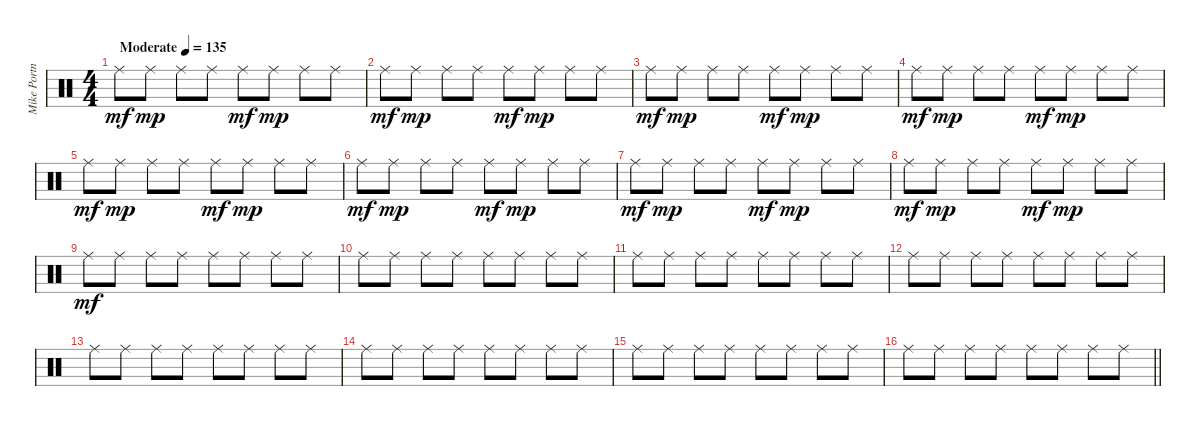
\track ("Mike Portnoy" "Mike Portn") {instrument percussion}
\staff {score}
\articulation defaults
\ts (4 4)
\tempo (135 "Moderate")
\clef neutral
\ks c "Ride (middle)".8{dy mf} "Ride (middle)".8{dy mp} "Ride (middle)".8 "Ride (middle)".8 "Ride (middle)".8{dy mf} "Ride (middle)".8{dy mp} "Ride (middle)".8 "Ride (middle)".8
|
"Ride (middle)".8{dy mf} "Ride (middle)".8{dy mp} "Ride (middle)".8 "Ride (middle)".8 "Ride (middle)".8{dy mf} "Ride (middle)".8{dy mp} "Ride (middle)".8 "Ride (middle)".8 |
"Ride (middle)".8{dy mf} "Ride (middle)".8{dy mp} "Ride (middle)".8 "Ride (middle)".8 "Ride (middle)".8{dy mf} "Ride (middle)".8{dy mp} "Ride (middle)".8 "Ride (middle)".8 |
"Ride (middle)".8{dy mf} "Ride (middle)".8{dy mp} "Ride (middle)".8 "Ride (middle)".8 "Ride (middle)".8{dy mf} "Ride (middle)".8{dy mp} "Ride (middle)".8 "Ride (middle)".8 |
"Ride (middle)".8{dy mf} "Ride (middle)".8{dy mp} "Ride (middle)".8 "Ride (middle)".8 "Ride (middle)".8{dy mf} "Ride (middle)".8{dy mp} "Ride (middle)".8 "Ride (middle)".8 |
"Ride (middle)".8{dy mf} "Ride (middle)".8{dy mp} "Ride (middle)".8 "Ride (middle)".8 "Ride (middle)".8{dy mf} "Ride (middle)".8{dy mp} "Ride (middle)".8 "Ride (middle)".8 |
"Ride (middle)".8{dy mf} "Ride (middle)".8{dy mp} "Ride (middle)".8 "Ride (middle)".8 "Ride (middle)".8{dy mf} "Ride (middle)".8{dy mp} "Ride (middle)".8 "Ride (middle)".8 |
"Ride (middle)".8{dy mf} "Ride (middle)".8{dy mp} "Ride (middle)".8 "Ride (middle)".8 "Ride (middle)".8{dy mf} "Ride (middle)".8{dy mp} "Ride (middle)".8 "Ride (middle)".8 |
"Ride (middle)".8{dy mf} "Ride (middle)".8 "Ride (middle)".8 "Ride (middle)".8 "Ride (middle)".8 "Ride (middle)".8 "Ride (middle)".8 "Ride (middle)".8 |
"Ride (middle)".8 "Ride (middle)".8 "Ride (middle)".8 "Ride (middle)".8 "Ride (middle)".8 "Ride (middle)".8 "Ride (middle)".8 "Ride (middle)".8 |
"Ride (middle)".8 "Ride (middle)".8 "Ride (middle)".8 "Ride (middle)".8 "Ride (middle)".8 "Ride (middle)".8 "Ride (middle)".8 "Ride (middle)".8 |
"Ride (middle)".8 "Ride (middle)".8 "Ride (middle)".8 "Ride (middle)".8 "Ride (middle)".8 "Ride (middle)".8 "Ride (middle)".8 "Ride (middle)".8 |
"Ride (middle)".8 "Ride (middle)".8 "Ride (middle)".8 "Ride (middle)".8 "Ride (middle)".8 "Ride (middle)".8 "Ride (middle)".8 "Ride (middle)".8 |
"Ride (middle)".8 "Ride (middle)".8 "Ride (middle)".8 "Ride (middle)".8 "Ride (middle)".8 "Ride (middle)".8 "Ride (middle)".8 "Ride (middle)".8 |
"Ride (middle)".8 "Ride (middle)".8 "Ride (middle)".8 "Ride (middle)".8 "Ride (middle)".8 "Ride (middle)".8 "Ride (middle)".8 "Ride (middle)".8 |
\barLineRight lightlight "Ride (middle)".8 "Ride (middle)".8 "Ride (middle)".8 "Ride (middle)".8 "Ride (middle)".8 "Ride (middle)".8 "Ride (middle)".8 "Ride (middle)".8
